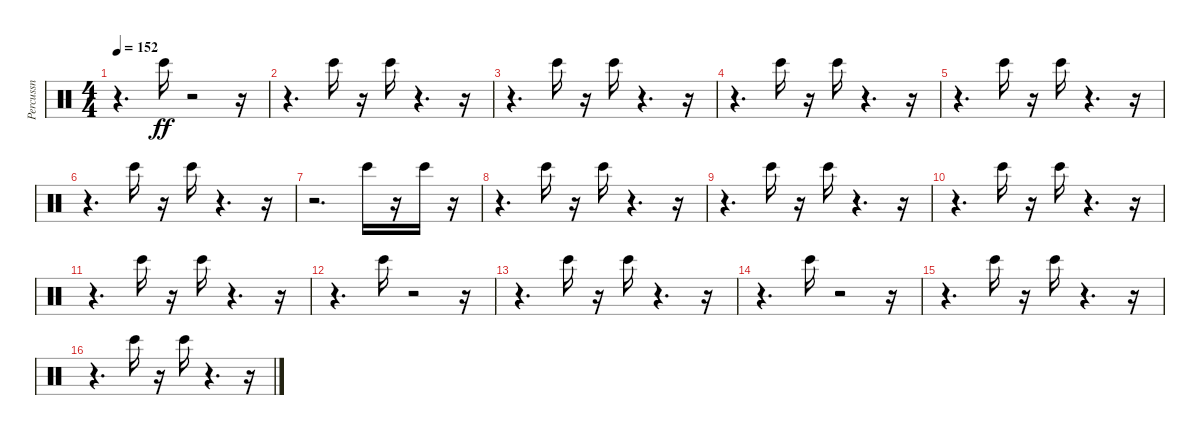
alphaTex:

\track ("Percussn" "Percussn") {instrument percussion}
\staff {score}
\articulation defaults
\ts (4 4)
\tempo 152
\clef neutral
\ks c
r.4{d dy ff} "Bongo High (hit)".16{balance 10} r.2 r.16 |
r.4{d} "Bongo High (hit)".16{balance 10} r.16 "Bongo High (hit)".16{balance 10} r.4{d} r.16 |
r.4{d} "Bongo High (hit)".16{balance 11} r.16 "Bongo High (hit)".16{balance 0} r.4{d} r.16 |
r.4{d} "Bongo High (hit)".16{balance 13} r.16 "Bongo High (hit)".16{balance 13} r.4{d} r.16 |
r.4{d} "Bongo High (hit)".16{balance 14} r.16 "Bongo High (hit)".16{balance 10} r.4{d} r.16 |
r.4{d} "Bongo High (hit)".16{balance 2} r.16 "Bongo High (hit)".16{balance 7} r.4{d} r.16 |
r.2{d} "Bongo High (hit)".16{balance 14} r.16 "Bongo High (hit)".16{balance 10} r.16 |
r.4{d} "Bongo High (hit)".16{balance 5} r.16 "Bongo High (hit)".16{balance 6} r.4{d} r.16 |
r.4{d} "Bongo High (hit)".16{balance 3} r.16 "Bongo High (hit)".16{balance 12} r.4{d} r.16 |
r.4{d} "Bongo High (hit)".16{balance 11} r.16 "Bongo High (hit)".16{balance 2} r.4{d} r.16 |
r.4{d} "Bongo High (hit)".16{balance 0} r.16 "Bongo High (hit)".16{balance 4} r.4{d} r.16 |
r.4{d} "Bongo High (hit)".16{balance 3} r.2 r.16 |
r.4{d} "Bongo High (hit)".16{balance 11} r.16 "Bongo High (hit)".16{balance 15} r.4{d} r.16 |
r.4{d} "Bongo High (hit)".16{balance 13} r.2 r.16 |
r.4{d} "Bongo High (hit)".16{balance 2} r.16 "Bongo High (hit)".16{balance 7} r.4{d} r.16 |
r.4{d} "Bongo High (hit)".16{balance 15} r.16 "Bongo High (hit)".16{balance 11} r.4{d} r.16
